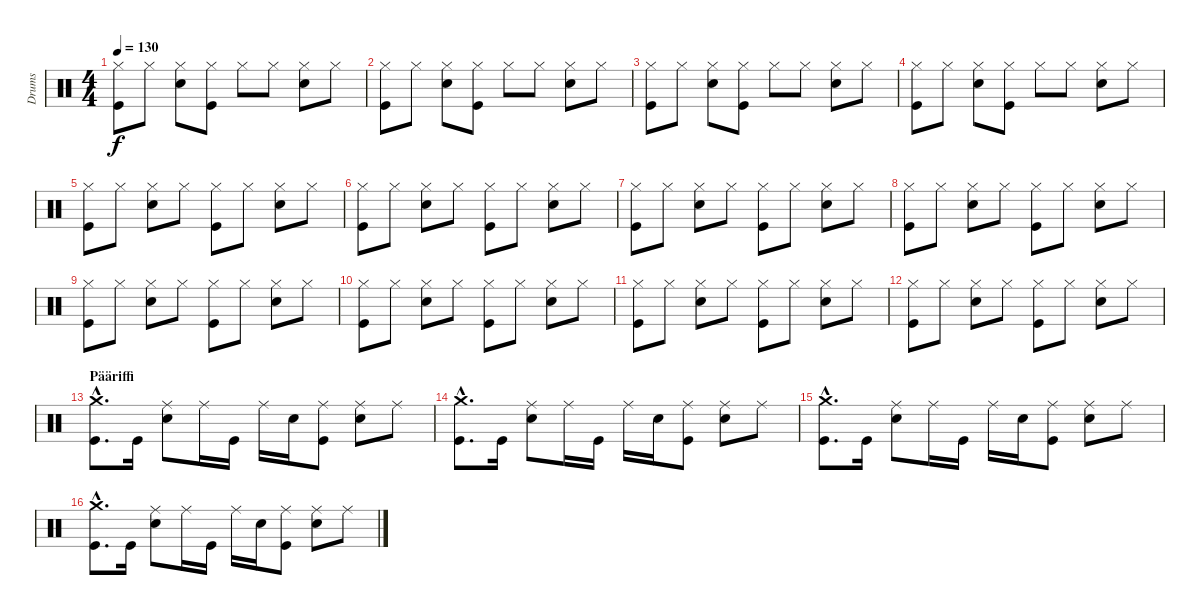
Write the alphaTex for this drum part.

\track ("Drums" "Drums") {instrument percussion}
\staff {score}
\articulation defaults
\ts (4 4)
\tempo 130
\clef neutral
\ks c
("Hi-Hat (closed)" "Kick (hit)").8{dy f} "Hi-Hat (closed)".8 ("Hi-Hat (closed)" "Electric Snare (hit)").8 ("Hi-Hat (closed)" "Kick (hit)").8 "Hi-Hat (closed)".8 "Hi-Hat (closed)".8 ("Hi-Hat (closed)" "Electric Snare (hit)").8 "Hi-Hat (closed)".8 |
("Hi-Hat (closed)" "Kick (hit)").8 "Hi-Hat (closed)".8 ("Hi-Hat (closed)" "Electric Snare (hit)").8 ("Hi-Hat (closed)" "Kick (hit)").8 "Hi-Hat (closed)".8 "Hi-Hat (closed)".8 ("Hi-Hat (closed)" "Electric Snare (hit)").8 "Hi-Hat (closed)".8 |
("Hi-Hat (closed)" "Kick (hit)").8 "Hi-Hat (closed)".8 ("Hi-Hat (closed)" "Electric Snare (hit)").8 ("Hi-Hat (closed)" "Kick (hit)").8 "Hi-Hat (closed)".8 "Hi-Hat (closed)".8 ("Hi-Hat (closed)" "Electric Snare (hit)").8 "Hi-Hat (closed)".8 |
("Hi-Hat (closed)" "Kick (hit)").8 "Hi-Hat (closed)".8 ("Hi-Hat (closed)" "Electric Snare (hit)").8 ("Hi-Hat (closed)" "Kick (hit)").8 "Hi-Hat (closed)".8 "Hi-Hat (closed)".8 ("Hi-Hat (closed)" "Electric Snare (hit)").8 "Hi-Hat (closed)".8 |
("Hi-Hat (closed)" "Kick (hit)").8 "Hi-Hat (closed)".8 ("Hi-Hat (closed)" "Electric Snare (hit)").8 "Hi-Hat (closed)".8 ("Hi-Hat (closed)" "Kick (hit)").8 "Hi-Hat (closed)".8 ("Hi-Hat (closed)" "Electric Snare (hit)").8 "Hi-Hat (closed)".8 |
("Hi-Hat (closed)" "Kick (hit)").8 "Hi-Hat (closed)".8 ("Hi-Hat (closed)" "Electric Snare (hit)").8 "Hi-Hat (closed)".8 ("Hi-Hat (closed)" "Kick (hit)").8 "Hi-Hat (closed)".8 ("Hi-Hat (closed)" "Electric Snare (hit)").8 "Hi-Hat (closed)".8 |
("Hi-Hat (closed)" "Kick (hit)").8 "Hi-Hat (closed)".8 ("Hi-Hat (closed)" "Electric Snare (hit)").8 "Hi-Hat (closed)".8 ("Hi-Hat (closed)" "Kick (hit)").8 "Hi-Hat (closed)".8 ("Hi-Hat (closed)" "Electric Snare (hit)").8 "Hi-Hat (closed)".8 |
("Hi-Hat (closed)" "Kick (hit)").8 "Hi-Hat (closed)".8 ("Hi-Hat (closed)" "Electric Snare (hit)").8 "Hi-Hat (closed)".8 ("Hi-Hat (closed)" "Kick (hit)").8 "Hi-Hat (closed)".8 ("Hi-Hat (closed)" "Electric Snare (hit)").8 "Hi-Hat (closed)".8 |
("Hi-Hat (closed)" "Kick (hit)").8 "Hi-Hat (closed)".8 ("Hi-Hat (closed)" "Electric Snare (hit)").8 "Hi-Hat (closed)".8 ("Hi-Hat (closed)" "Kick (hit)").8 "Hi-Hat (closed)".8 ("Hi-Hat (closed)" "Electric Snare (hit)").8 "Hi-Hat (closed)".8 |
("Hi-Hat (closed)" "Kick (hit)").8 "Hi-Hat (closed)".8 ("Hi-Hat (closed)" "Electric Snare (hit)").8 "Hi-Hat (closed)".8 ("Hi-Hat (closed)" "Kick (hit)").8 "Hi-Hat (closed)".8 ("Hi-Hat (closed)" "Electric Snare (hit)").8 "Hi-Hat (closed)".8 |
("Hi-Hat (closed)" "Kick (hit)").8 "Hi-Hat (closed)".8 ("Hi-Hat (closed)" "Electric Snare (hit)").8 "Hi-Hat (closed)".8 ("Hi-Hat (closed)" "Kick (hit)").8 "Hi-Hat (closed)".8 ("Hi-Hat (closed)" "Electric Snare (hit)").8 "Hi-Hat (closed)".8 |
("Hi-Hat (closed)" "Kick (hit)").8 "Hi-Hat (closed)".8 ("Hi-Hat (closed)" "Electric Snare (hit)").8 "Hi-Hat (closed)".8 ("Hi-Hat (closed)" "Kick (hit)").8 "Hi-Hat (closed)".8 ("Hi-Hat (closed)" "Electric Snare (hit)").8 "Hi-Hat (closed)".8 |
\section ("" "Pääriffi")
("Crash medium (hit)"{hac} "Kick (hit)"{hac}).8{d} "Kick (hit)".16 ("Ride (middle)" "Electric Snare (hit)").8 "Ride (middle)".16 "Kick (hit)".16 "Ride (middle)".16 "Electric Snare (hit)".16 ("Ride (middle)" "Kick (hit)").8 ("Ride (middle)" "Electric Snare (hit)").8 "Ride (middle)".8 |
("Crash medium (hit)"{hac} "Kick (hit)"{hac}).8{d} "Kick (hit)".16 ("Ride (middle)" "Electric Snare (hit)").8 "Ride (middle)".16 "Kick (hit)".16 "Ride (middle)".16 "Electric Snare (hit)".16 ("Ride (middle)" "Kick (hit)").8 ("Ride (middle)" "Electric Snare (hit)").8 "Ride (middle)".8 |
("Crash medium (hit)"{hac} "Kick (hit)"{hac}).8{d} "Kick (hit)".16 ("Ride (middle)" "Electric Snare (hit)").8 "Ride (middle)".16 "Kick (hit)".16 "Ride (middle)".16 "Electric Snare (hit)".16 ("Ride (middle)" "Kick (hit)").8 ("Ride (middle)" "Electric Snare (hit)").8 "Ride (middle)".8 |
("Crash medium (hit)"{hac} "Kick (hit)"{hac}).8{d} "Kick (hit)".16 ("Ride (middle)" "Electric Snare (hit)").8 "Ride (middle)".16 "Kick (hit)".16 "Ride (middle)".16 "Electric Snare (hit)".16 ("Ride (middle)" "Kick (hit)").8 ("Ride (middle)" "Electric Snare (hit)").8 "Ride (middle)".8
